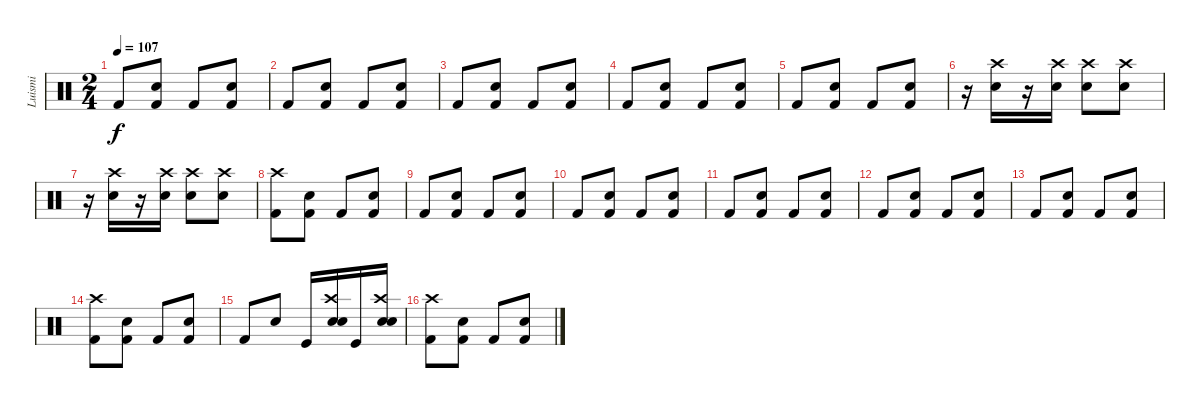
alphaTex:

\track ("Luismi" "Luismi") {instrument percussion}
\staff {score}
\articulation defaults
\ts (2 4)
\tempo 107
\clef neutral
\ks c "Kick (hit) 2".8{dy f}
("Snare (hit) 2" "Kick (hit) 2").8 "Kick (hit) 2".8 ("Snare (hit) 2" "Kick (hit) 2").8 |
"Kick (hit) 2".8 ("Snare (hit) 2" "Kick (hit) 2").8 "Kick (hit) 2".8 ("Snare (hit) 2" "Kick (hit) 2").8 |
"Kick (hit) 2".8 ("Snare (hit) 2" "Kick (hit) 2").8 "Kick (hit) 2".8 ("Snare (hit) 2" "Kick (hit) 2").8 |
"Kick (hit) 2".8 ("Snare (hit) 2" "Kick (hit) 2").8 "Kick (hit) 2".8 ("Snare (hit) 2" "Kick (hit) 2").8 |
"Kick (hit) 2".8 ("Snare (hit) 2" "Kick (hit) 2").8 "Kick (hit) 2".8 ("Snare (hit) 2" "Kick (hit) 2").8 |
r.16 ("Crash high (hit)" "Snare (hit) 2").16 r.16 ("Crash high (hit)" "Snare (hit) 2").16 ("Crash high (hit)" "Snare (hit) 2").8 ("Crash high (hit)" "Snare (hit) 2").8 |
r.16 ("Crash high (hit)" "Snare (hit) 2").16 r.16 ("Crash high (hit)" "Snare (hit) 2").16 ("Crash high (hit)" "Snare (hit) 2").8 ("Crash high (hit)" "Snare (hit) 2").8 |
("Crash high (hit)" "Kick (hit) 2").8 ("Snare (hit) 2" "Kick (hit) 2").8 "Kick (hit) 2".8 ("Snare (hit) 2" "Kick (hit) 2").8 |
"Kick (hit) 2".8 ("Snare (hit) 2" "Kick (hit) 2").8 "Kick (hit) 2".8 ("Snare (hit) 2" "Kick (hit) 2").8 |
"Kick (hit) 2".8 ("Snare (hit) 2" "Kick (hit) 2").8 "Kick (hit) 2".8 ("Snare (hit) 2" "Kick (hit) 2").8 |
"Kick (hit) 2".8 ("Snare (hit) 2" "Kick (hit) 2").8 "Kick (hit) 2".8 ("Snare (hit) 2" "Kick (hit) 2").8 |
"Kick (hit) 2".8 ("Snare (hit) 2" "Kick (hit) 2").8 "Kick (hit) 2".8 ("Snare (hit) 2" "Kick (hit) 2").8 |
"Kick (hit) 2".8 ("Snare (hit) 2" "Kick (hit) 2").8 "Kick (hit) 2".8 ("Snare (hit) 2" "Kick (hit) 2").8 |
("Crash high (hit)" "Kick (hit) 2").8 ("Snare (hit) 2" "Kick (hit) 2").8 "Kick (hit) 2".8 ("Snare (hit) 2" "Kick (hit) 2").8 |
"Kick (hit) 2".8 "Snare (hit) 2".8 "Kick (hit)".16 ("Crash high (hit)" "Snare (hit) 2" "Electric Snare (hit)").16 "Kick (hit)".16 ("Crash high (hit)" "Snare (hit) 2" "Electric Snare (hit)").16 |
("Crash high (hit)" "Kick (hit) 2").8 ("Snare (hit) 2" "Kick (hit) 2").8 "Kick (hit) 2".8 ("Snare (hit) 2" "Kick (hit) 2").8
